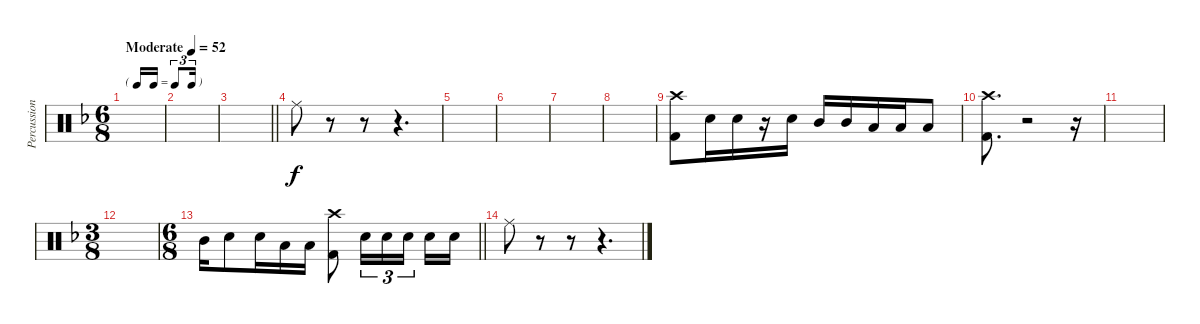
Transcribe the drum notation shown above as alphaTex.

\track ("Percussion" "Percussion") {instrument percussion}
\staff {score}
\articulation defaults
\ts (6 8)
\tf triplet16th
\tempo (52 "Moderate")
\clef neutral
\ks f
|
|
\barLineRight lightlight
|
"Ride (middle)".8 r.8 r.8 r.4{d} |
|
|
|
|
("Crash high (hit)" "Kick (hit) 2").8 "Snare (hit) 2".16 "Snare (hit) 2".16 r.16 "Snare (hit) 2".16 "Mid Tom (hit)".16 "Mid Tom (hit)".16 "Low Floor Tom (hit)".16 "Low Floor Tom (hit)".16 "Low Floor Tom (hit)".8 |
("Crash high (hit)" "Kick (hit) 2").8{d} r.2 r.16 |
|
\ts (3 8)
|
\ts (6 8)
\barLineRight lightlight "Mid Tom (hit)".16 "Snare (hit) 2".8 "Snare (hit) 2".16 "Low Floor Tom (hit)".16 "Low Floor Tom (hit)".16
("Crash high (hit)" "Kick (hit) 2").8 "Snare (hit) 2".16{tu (3 2)} "Snare (hit) 2".16{tu (3 2)} "Snare (hit) 2".16{tu (3 2) beam splitsecondary} "Snare (hit) 2".16 "Snare (hit) 2".16 |
"Ride (middle)".8 r.8 r.8 r.4{d}
